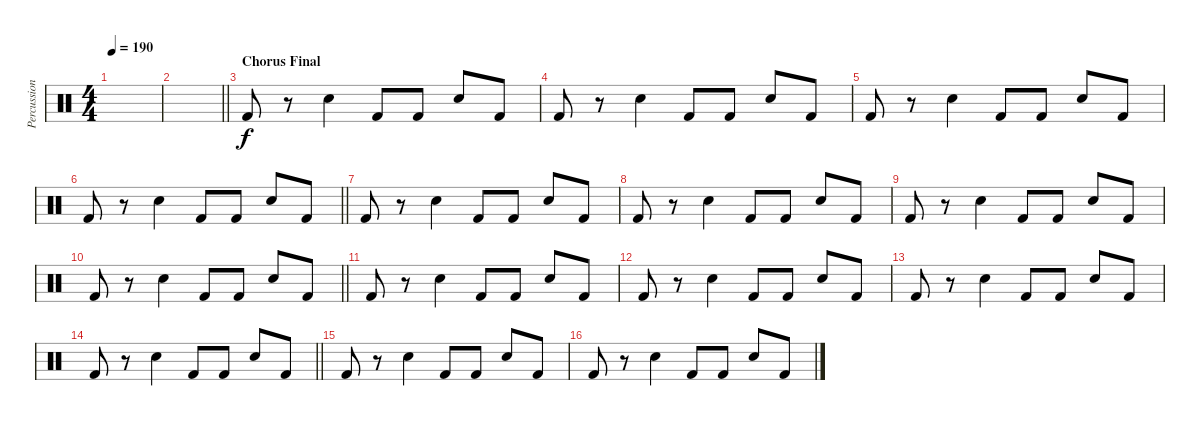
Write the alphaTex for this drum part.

\track ("Percussion" "Percussion") {instrument percussion}
\staff {score}
\articulation defaults
\ts (4 4)
\tempo 190
\clef neutral
\ks c
|
\barLineRight lightlight
|
\section ("" "Chorus Final")
"Kick (hit) 2".8 r.8 "Electric Snare (hit)".4 "Kick (hit) 2".8 "Kick (hit) 2".8 "Electric Snare (hit)".8 "Kick (hit) 2".8 |
"Kick (hit) 2".8 r.8 "Electric Snare (hit)".4 "Kick (hit) 2".8 "Kick (hit) 2".8 "Electric Snare (hit)".8 "Kick (hit) 2".8 |
"Kick (hit) 2".8 r.8 "Electric Snare (hit)".4 "Kick (hit) 2".8 "Kick (hit) 2".8 "Electric Snare (hit)".8 "Kick (hit) 2".8 |
\barLineRight lightlight "Kick (hit) 2".8
r.8 "Electric Snare (hit)".4 "Kick (hit) 2".8 "Kick (hit) 2".8 "Electric Snare (hit)".8 "Kick (hit) 2".8 |
"Kick (hit) 2".8 r.8 "Electric Snare (hit)".4 "Kick (hit) 2".8 "Kick (hit) 2".8 "Electric Snare (hit)".8 "Kick (hit) 2".8 |
"Kick (hit) 2".8 r.8 "Electric Snare (hit)".4 "Kick (hit) 2".8 "Kick (hit) 2".8 "Electric Snare (hit)".8 "Kick (hit) 2".8 |
"Kick (hit) 2".8 r.8 "Electric Snare (hit)".4 "Kick (hit) 2".8 "Kick (hit) 2".8 "Electric Snare (hit)".8 "Kick (hit) 2".8 |
\barLineRight lightlight "Kick (hit) 2".8
r.8 "Electric Snare (hit)".4 "Kick (hit) 2".8 "Kick (hit) 2".8 "Electric Snare (hit)".8 "Kick (hit) 2".8 |
"Kick (hit) 2".8 r.8 "Electric Snare (hit)".4 "Kick (hit) 2".8 "Kick (hit) 2".8 "Electric Snare (hit)".8 "Kick (hit) 2".8 |
"Kick (hit) 2".8 r.8 "Electric Snare (hit)".4 "Kick (hit) 2".8 "Kick (hit) 2".8 "Electric Snare (hit)".8 "Kick (hit) 2".8 |
"Kick (hit) 2".8 r.8 "Electric Snare (hit)".4 "Kick (hit) 2".8 "Kick (hit) 2".8 "Electric Snare (hit)".8 "Kick (hit) 2".8 |
\barLineRight lightlight "Kick (hit) 2".8
r.8 "Electric Snare (hit)".4 "Kick (hit) 2".8 "Kick (hit) 2".8 "Electric Snare (hit)".8 "Kick (hit) 2".8 |
"Kick (hit) 2".8 r.8 "Electric Snare (hit)".4 "Kick (hit) 2".8 "Kick (hit) 2".8 "Electric Snare (hit)".8 "Kick (hit) 2".8 |
"Kick (hit) 2".8 r.8 "Electric Snare (hit)".4 "Kick (hit) 2".8 "Kick (hit) 2".8 "Electric Snare (hit)".8 "Kick (hit) 2".8
